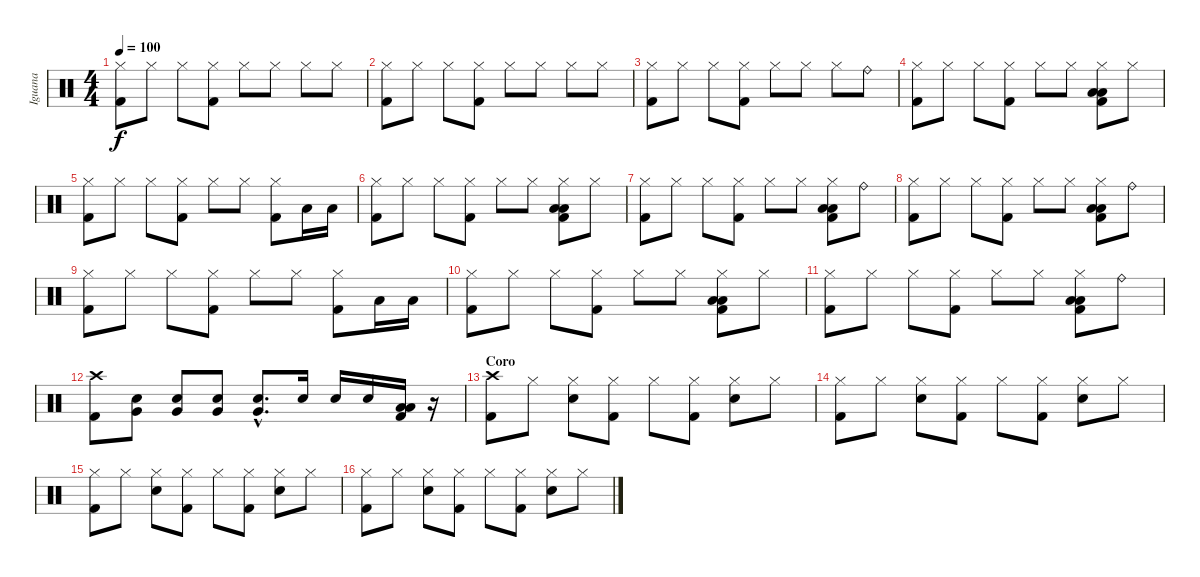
\track ("Iguana" "Iguana") {instrument percussion}
\staff {score}
\articulation defaults
\ts (4 4)
\tempo 100
\clef neutral
\ks c
("Hi-Hat (closed)" "Kick (hit) 2").8{dy f} "Hi-Hat (closed)".8 "Hi-Hat (closed)".8 ("Hi-Hat (closed)" "Kick (hit) 2").8 "Hi-Hat (closed)".8 "Hi-Hat (closed)".8 "Hi-Hat (closed)".8 "Hi-Hat (closed)".8 |
("Hi-Hat (closed)" "Kick (hit) 2").8 "Hi-Hat (closed)".8 "Hi-Hat (closed)".8 ("Hi-Hat (closed)" "Kick (hit) 2").8 "Hi-Hat (closed)".8 "Hi-Hat (closed)".8 "Hi-Hat (closed)".8 "Hi-Hat (closed)".8 |
("Hi-Hat (closed)" "Kick (hit) 2").8 "Hi-Hat (closed)".8 "Hi-Hat (closed)".8 ("Hi-Hat (closed)" "Kick (hit) 2").8 "Hi-Hat (closed)".8 "Hi-Hat (closed)".8 "Hi-Hat (closed)".8 "Ride (bell)".8 |
("Hi-Hat (closed)" "Kick (hit) 2").8 "Hi-Hat (closed)".8 "Hi-Hat (closed)".8 ("Hi-Hat (closed)" "Kick (hit) 2").8 "Hi-Hat (closed)".8 "Hi-Hat (closed)".8 ("Hi-Hat (closed)" "Kick (hit) 2" "Low Tom (hit)" "Low Tom (hit)").8 "Hi-Hat (closed)".8 |
("Hi-Hat (closed)" "Kick (hit) 2").8 "Hi-Hat (closed)".8 "Hi-Hat (closed)".8 ("Hi-Hat (closed)" "Kick (hit) 2").8 "Hi-Hat (closed)".8 "Hi-Hat (closed)".8 ("Hi-Hat (closed)" "Kick (hit) 2").8 "Low Tom (hit)".16 "Low Tom (hit)".16 |
("Hi-Hat (closed)" "Kick (hit) 2").8 "Hi-Hat (closed)".8 "Hi-Hat (closed)".8 ("Hi-Hat (closed)" "Kick (hit) 2").8 "Hi-Hat (closed)".8 "Hi-Hat (closed)".8 ("Hi-Hat (closed)" "Kick (hit) 2" "Low Tom (hit)" "Low Tom (hit)").8 "Hi-Hat (closed)".8 |
("Hi-Hat (closed)" "Kick (hit) 2").8 "Hi-Hat (closed)".8 "Hi-Hat (closed)".8 ("Hi-Hat (closed)" "Kick (hit) 2").8 "Hi-Hat (closed)".8 "Hi-Hat (closed)".8 ("Hi-Hat (closed)" "Kick (hit) 2" "Low Tom (hit)" "Low Tom (hit)").8 "Ride (bell)".8 |
("Hi-Hat (closed)" "Kick (hit) 2").8 "Hi-Hat (closed)".8 "Hi-Hat (closed)".8 ("Hi-Hat (closed)" "Kick (hit) 2").8 "Hi-Hat (closed)".8 "Hi-Hat (closed)".8 ("Hi-Hat (closed)" "Kick (hit) 2" "Low Tom (hit)" "Low Tom (hit)").8 "Ride (bell)".8 |
("Hi-Hat (closed)" "Kick (hit) 2").8 "Hi-Hat (closed)".8 "Hi-Hat (closed)".8 ("Hi-Hat (closed)" "Kick (hit) 2").8 "Hi-Hat (closed)".8 "Hi-Hat (closed)".8 ("Hi-Hat (closed)" "Kick (hit) 2").8 "Low Tom (hit)".16 "Low Tom (hit)".16 |
("Hi-Hat (closed)" "Kick (hit) 2").8 "Hi-Hat (closed)".8 "Hi-Hat (closed)".8 ("Hi-Hat (closed)" "Kick (hit) 2").8 "Hi-Hat (closed)".8 "Hi-Hat (closed)".8 ("Hi-Hat (closed)" "Kick (hit) 2" "Low Tom (hit)" "Low Tom (hit)").8 "Hi-Hat (closed)".8 |
("Hi-Hat (closed)" "Kick (hit) 2").8 "Hi-Hat (closed)".8 "Hi-Hat (closed)".8 ("Hi-Hat (closed)" "Kick (hit) 2").8 "Hi-Hat (closed)".8 "Hi-Hat (closed)".8 ("Hi-Hat (closed)" "Kick (hit) 2" "Low Tom (hit)" "Low Tom (hit)").8 "Ride (bell)".8 |
("Crash high (hit)" "Kick (hit) 2").8 ("Very Low Tom (hit)" "Electric Snare (hit)").8 ("Very Low Tom (hit)" "Electric Snare (hit)").8 ("Very Low Tom (hit)" "Electric Snare (hit)").8 ("Very Low Tom (hit)"{hac} "Electric Snare (hit)"{hac}).8{d} "Electric Snare (hit)".16 "Electric Snare (hit)".16 "Electric Snare (hit)".16 ("Low Tom (hit)" "Low Tom (hit)" "Kick (hit) 2").16 r.16 |
\section ("" "Coro")
("Crash high (hit)" "Kick (hit) 2").8 "Hi-Hat (closed)".8 ("Hi-Hat (closed)" "Electric Snare (hit)").8 ("Hi-Hat (closed)" "Kick (hit) 2").8 "Hi-Hat (closed)".8 ("Hi-Hat (closed)" "Kick (hit) 2").8 ("Hi-Hat (closed)" "Electric Snare (hit)").8 "Hi-Hat (closed)".8 |
("Hi-Hat (closed)" "Kick (hit) 2").8 "Hi-Hat (closed)".8 ("Hi-Hat (closed)" "Electric Snare (hit)").8 ("Hi-Hat (closed)" "Kick (hit) 2").8 "Hi-Hat (closed)".8 ("Hi-Hat (closed)" "Kick (hit) 2").8 ("Hi-Hat (closed)" "Electric Snare (hit)").8 "Hi-Hat (closed)".8 |
("Hi-Hat (closed)" "Kick (hit) 2").8 "Hi-Hat (closed)".8 ("Hi-Hat (closed)" "Electric Snare (hit)").8 ("Hi-Hat (closed)" "Kick (hit) 2").8 "Hi-Hat (closed)".8 ("Hi-Hat (closed)" "Kick (hit) 2").8 ("Hi-Hat (closed)" "Electric Snare (hit)").8 "Hi-Hat (closed)".8 |
("Hi-Hat (closed)" "Kick (hit) 2").8 "Hi-Hat (closed)".8 ("Hi-Hat (closed)" "Electric Snare (hit)").8 ("Hi-Hat (closed)" "Kick (hit) 2").8 "Hi-Hat (closed)".8 ("Hi-Hat (closed)" "Kick (hit) 2").8 ("Hi-Hat (closed)" "Electric Snare (hit)").8 "Hi-Hat (closed)".8
